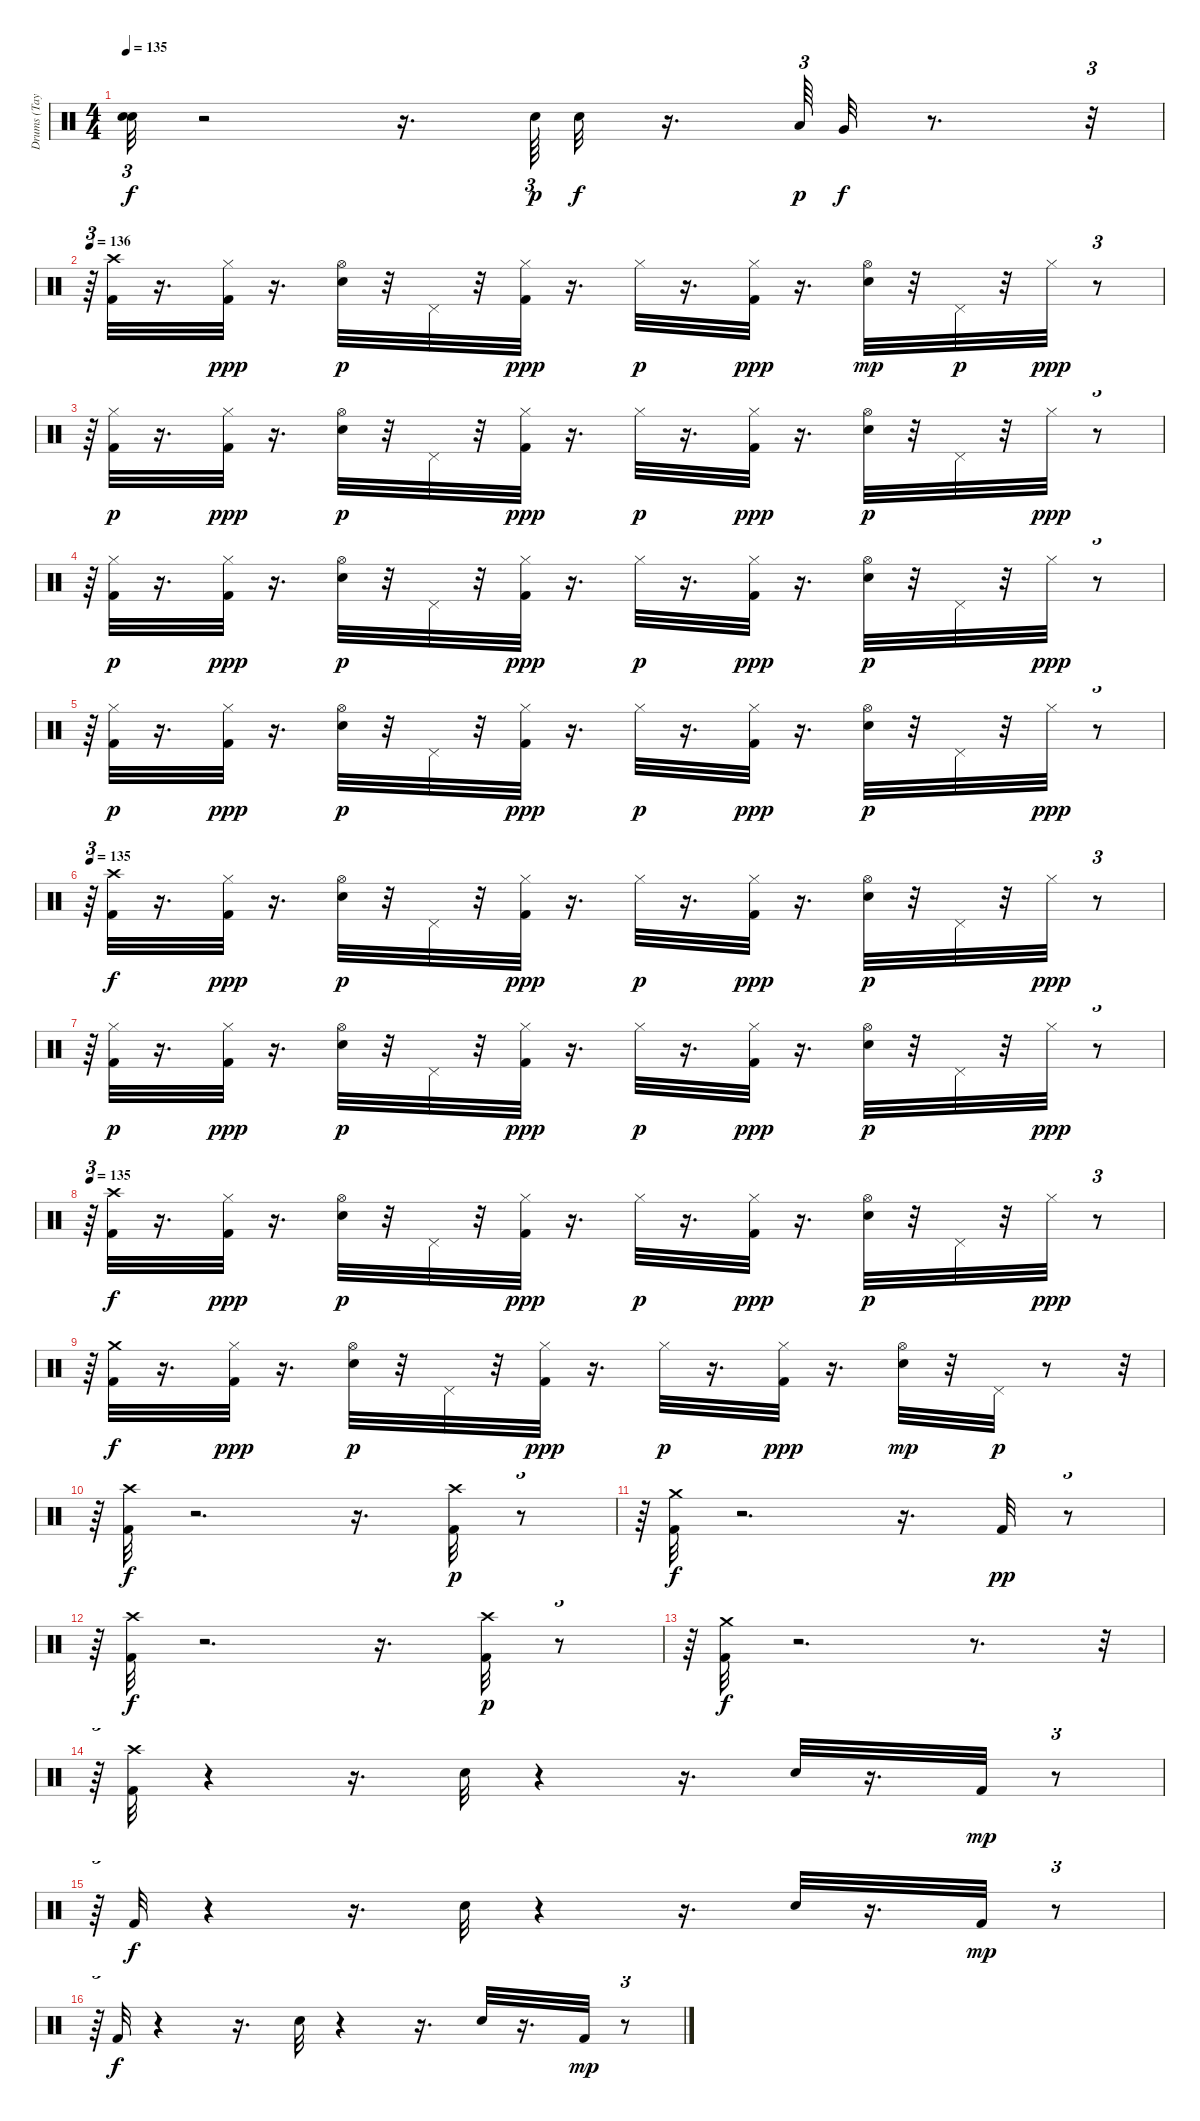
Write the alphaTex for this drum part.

\track ("Drums (Taylor)" "Drums (Tay") {instrument percussion}
\staff {score}
\articulation defaults
\ts (4 4)
\tempo 135
\clef neutral
\ks c
("Snare (hit)"{t} "Snare (hit)"{t}).32{tu (3 2) dy f} r.2 r.16{d} "Electric Snare (hit)".64{tu (3 2) dy p} "Snare (hit) 2".32{dy f} r.16{d} "Low Tom (hit)".64{tu (3 2) dy p} "Very Low Tom (hit)".32{dy f} r.8{d} r.32{tu (3 2)} |
\tempo 136
r.64{tu (3 2)} ("Kick (hit) 2" "Crash high (hit)").32 r.16{d} ("Kick (hit) 2" "Hi-Hat (closed)").32{dy ppp} r.16{d} ("Snare (hit) 2" "Hi-Hat (open)").32{dy p} r.32 "Pedal Hi-Hat (hit)".32 r.32 ("Kick (hit) 2" "Hi-Hat (closed)").32{dy ppp} r.16{d} "Hi-Hat (closed)".32{dy p} r.16{d} ("Kick (hit) 2" "Hi-Hat (closed)").32{dy ppp} r.16{d} ("Hi-Hat (open)" "Snare (hit) 2").32{dy mp} r.32 "Pedal Hi-Hat (hit)".32{dy p} r.32 "Hi-Hat (closed)".32{dy ppp} r.8{tu (3 2)} |
r.64{tu (3 2)} ("Kick (hit) 2" "Hi-Hat (closed)").32{dy p} r.16{d} ("Kick (hit) 2" "Hi-Hat (closed)").32{dy ppp} r.16{d} ("Snare (hit) 2" "Hi-Hat (open)").32{dy p} r.32 "Pedal Hi-Hat (hit)".32 r.32 ("Kick (hit) 2" "Hi-Hat (closed)").32{dy ppp} r.16{d} "Hi-Hat (closed)".32{dy p} r.16{d} ("Kick (hit) 2" "Hi-Hat (closed)").32{dy ppp} r.16{d} ("Snare (hit) 2" "Hi-Hat (open)").32{dy p} r.32 "Pedal Hi-Hat (hit)".32 r.32 "Hi-Hat (closed)".32{dy ppp} r.8{tu (3 2)} |
r.64{tu (3 2)} ("Kick (hit) 2" "Hi-Hat (closed)").32{dy p} r.16{d} ("Kick (hit) 2" "Hi-Hat (closed)").32{dy ppp} r.16{d} ("Snare (hit) 2" "Hi-Hat (open)").32{dy p} r.32 "Pedal Hi-Hat (hit)".32 r.32 ("Kick (hit) 2" "Hi-Hat (closed)").32{dy ppp} r.16{d} "Hi-Hat (closed)".32{dy p} r.16{d} ("Kick (hit) 2" "Hi-Hat (closed)").32{dy ppp} r.16{d} ("Snare (hit) 2" "Hi-Hat (open)").32{dy p} r.32 "Pedal Hi-Hat (hit)".32 r.32 "Hi-Hat (closed)".32{dy ppp} r.8{tu (3 2)} |
r.64{tu (3 2)} ("Kick (hit) 2" "Hi-Hat (closed)").32{dy p} r.16{d} ("Kick (hit) 2" "Hi-Hat (closed)").32{dy ppp} r.16{d} ("Snare (hit) 2" "Hi-Hat (open)").32{dy p} r.32 "Pedal Hi-Hat (hit)".32 r.32 ("Kick (hit) 2" "Hi-Hat (closed)").32{dy ppp} r.16{d} "Hi-Hat (closed)".32{dy p} r.16{d} ("Kick (hit) 2" "Hi-Hat (closed)").32{dy ppp} r.16{d} ("Snare (hit) 2" "Hi-Hat (open)").32{dy p} r.32 "Pedal Hi-Hat (hit)".32 r.32 "Hi-Hat (closed)".32{dy ppp} r.8{tu (3 2)} |
\tempo 135
r.64{tu (3 2)} ("Kick (hit) 2" "Crash high (hit)").32{dy f} r.16{d} ("Kick (hit) 2" "Hi-Hat (closed)").32{dy ppp} r.16{d} ("Snare (hit) 2" "Hi-Hat (open)").32{dy p} r.32 "Pedal Hi-Hat (hit)".32 r.32 ("Kick (hit) 2" "Hi-Hat (closed)").32{dy ppp} r.16{d} "Hi-Hat (closed)".32{dy p} r.16{d} ("Kick (hit) 2" "Hi-Hat (closed)").32{dy ppp} r.16{d} ("Snare (hit) 2" "Hi-Hat (open)").32{dy p} r.32 "Pedal Hi-Hat (hit)".32 r.32 "Hi-Hat (closed)".32{dy ppp} r.8{tu (3 2)} |
r.64{tu (3 2)} ("Kick (hit) 2" "Hi-Hat (closed)").32{dy p} r.16{d} ("Kick (hit) 2" "Hi-Hat (closed)").32{dy ppp} r.16{d} ("Snare (hit) 2" "Hi-Hat (open)").32{dy p} r.32 "Pedal Hi-Hat (hit)".32 r.32 ("Kick (hit) 2" "Hi-Hat (closed)").32{dy ppp} r.16{d} "Hi-Hat (closed)".32{dy p} r.16{d} ("Kick (hit) 2" "Hi-Hat (closed)").32{dy ppp} r.16{d} ("Snare (hit) 2" "Hi-Hat (open)").32{dy p} r.32 "Pedal Hi-Hat (hit)".32 r.32 "Hi-Hat (closed)".32{dy ppp} r.8{tu (3 2)} |
\tempo 135
r.64{tu (3 2)} ("Kick (hit) 2" "Crash high (hit)").32{dy f} r.16{d} ("Kick (hit) 2" "Hi-Hat (closed)").32{dy ppp} r.16{d} ("Snare (hit) 2" "Hi-Hat (open)").32{dy p} r.32 "Pedal Hi-Hat (hit)".32 r.32 ("Kick (hit) 2" "Hi-Hat (closed)").32{dy ppp} r.16{d} "Hi-Hat (closed)".32{dy p} r.16{d} ("Kick (hit) 2" "Hi-Hat (closed)").32{dy ppp} r.16{d} ("Snare (hit) 2" "Hi-Hat (open)").32{dy p} r.32 "Pedal Hi-Hat (hit)".32 r.32 "Hi-Hat (closed)".32{dy ppp} r.8{tu (3 2)} |
r.64{tu (3 2)} ("Kick (hit) 2" "Crash medium (hit)").32{dy f} r.16{d} ("Kick (hit) 2" "Hi-Hat (closed)").32{dy ppp} r.16{d} ("Snare (hit) 2" "Hi-Hat (open)").32{dy p} r.32 "Pedal Hi-Hat (hit)".32 r.32 ("Kick (hit) 2" "Hi-Hat (closed)").32{dy ppp} r.16{d} "Hi-Hat (closed)".32{dy p} r.16{d} ("Kick (hit) 2" "Hi-Hat (closed)").32{dy ppp} r.16{d} ("Hi-Hat (open)" "Snare (hit) 2").32{dy mp} r.32 "Pedal Hi-Hat (hit)".32{dy p} r.8 r.32{tu (3 2)} |
r.64{tu (3 2)} ("Kick (hit) 2" "Crash high (hit)").32{dy f} r.2{d} r.16{d} ("Crash high (hit)" "Kick (hit) 2").32{dy p} r.8{tu (3 2)} |
r.64{tu (3 2)} ("Crash medium (hit)" "Kick (hit) 2").32{dy f} r.2{d} r.16{d} "Kick (hit) 2".32{dy pp} r.8{tu (3 2)} |
r.64{tu (3 2)} ("Kick (hit) 2" "Crash high (hit)").32{dy f} r.2{d} r.16{d} ("Crash high (hit)" "Kick (hit) 2").32{dy p} r.8{tu (3 2)} |
r.64{tu (3 2)} ("Crash medium (hit)" "Kick (hit) 2").32{dy f} r.2{d} r.8{d} r.32{tu (3 2)} |
r.64{tu (3 2)} ("Crash high (hit)" "Kick (hit) 2").32 r.4 r.16{d} "Snare (hit) 2".32 r.4 r.16{d} "Snare (hit) 2".32 r.16{d} "Kick (hit) 2".32{dy mp} r.8{tu (3 2)} |
r.64{tu (3 2)} "Kick (hit) 2".32{dy f} r.4 r.16{d} "Snare (hit) 2".32 r.4 r.16{d} "Snare (hit) 2".32 r.16{d} "Kick (hit) 2".32{dy mp} r.8{tu (3 2)} |
r.64{tu (3 2)} "Kick (hit) 2".32{dy f} r.4 r.16{d} "Snare (hit) 2".32 r.4 r.16{d} "Snare (hit) 2".32 r.16{d} "Kick (hit) 2".32{dy mp} r.8{tu (3 2)}
